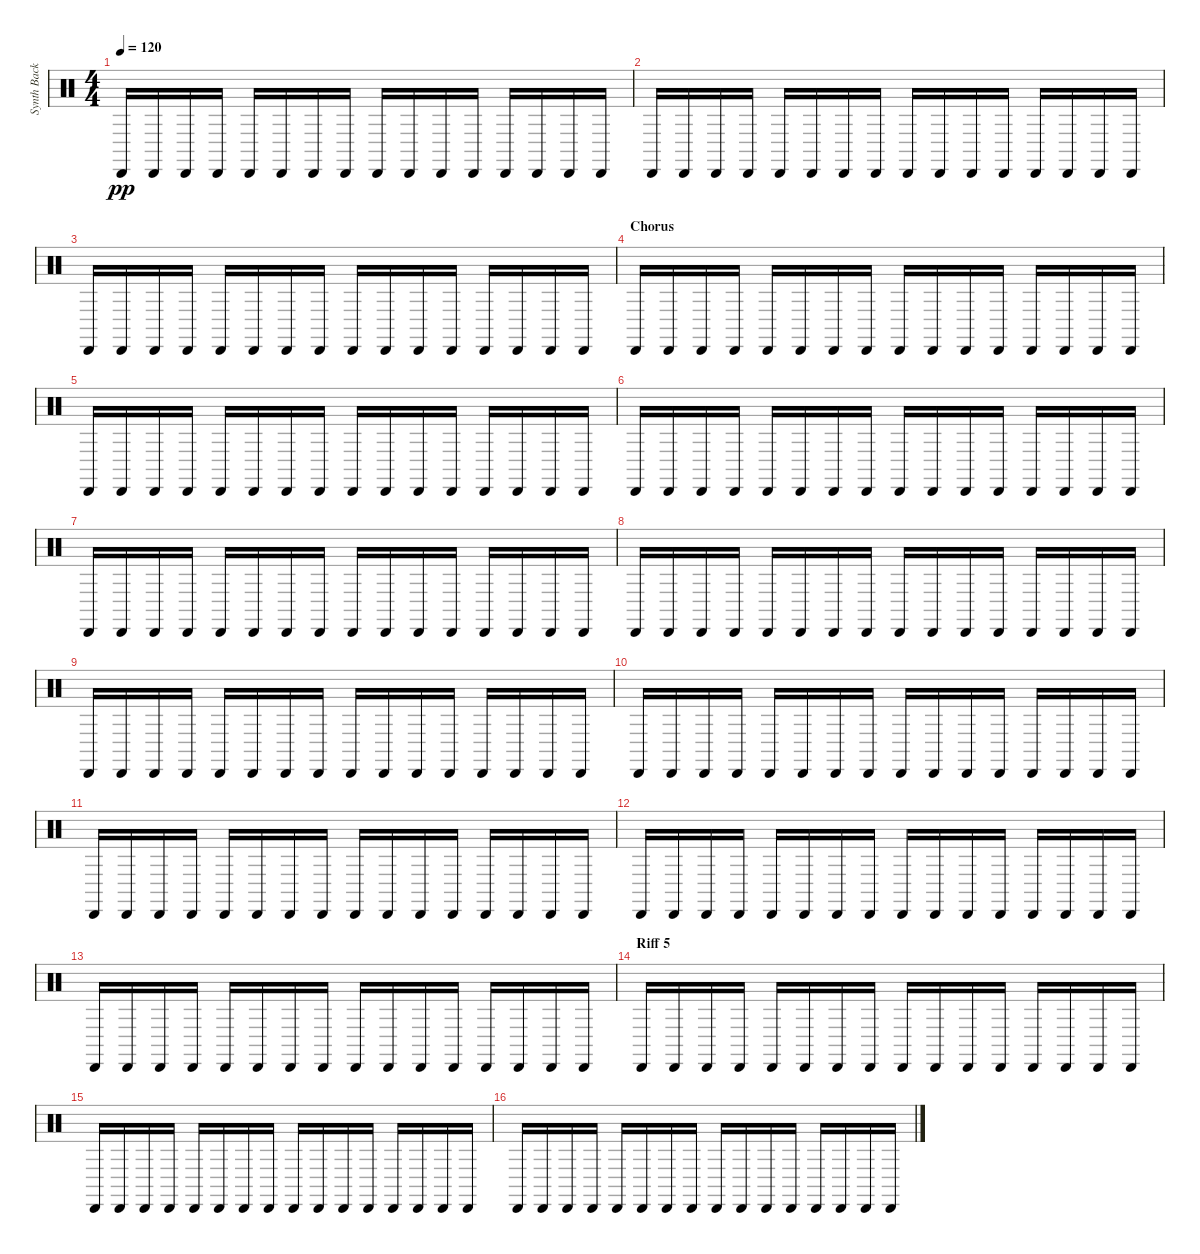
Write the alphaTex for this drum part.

\track ("Synth Background Rhythm" "Synth Back") {instrument percussion}
\staff {score}
\articulation defaults
\ts (4 4)
\tempo 120
\clef neutral
\ks c "Cabasa (hit)".16{dy pp} "Cabasa (hit)".16 "Cabasa (hit)".16 "Cabasa (hit)".16 "Cabasa (hit)".16 "Cabasa (hit)".16 "Cabasa (hit)".16 "Cabasa (hit)".16 "Cabasa (hit)".16 "Cabasa (hit)".16 "Cabasa (hit)".16 "Cabasa (hit)".16 "Cabasa (hit)".16 "Cabasa (hit)".16 "Cabasa (hit)".16 "Cabasa (hit)".16
|
"Cabasa (hit)".16 "Cabasa (hit)".16 "Cabasa (hit)".16 "Cabasa (hit)".16 "Cabasa (hit)".16 "Cabasa (hit)".16 "Cabasa (hit)".16 "Cabasa (hit)".16 "Cabasa (hit)".16 "Cabasa (hit)".16 "Cabasa (hit)".16 "Cabasa (hit)".16 "Cabasa (hit)".16 "Cabasa (hit)".16 "Cabasa (hit)".16 "Cabasa (hit)".16 |
"Cabasa (hit)".16 "Cabasa (hit)".16 "Cabasa (hit)".16 "Cabasa (hit)".16 "Cabasa (hit)".16 "Cabasa (hit)".16 "Cabasa (hit)".16 "Cabasa (hit)".16 "Cabasa (hit)".16 "Cabasa (hit)".16 "Cabasa (hit)".16 "Cabasa (hit)".16 "Cabasa (hit)".16 "Cabasa (hit)".16 "Cabasa (hit)".16 "Cabasa (hit)".16 |
\section ("" "Chorus")
"Cabasa (hit)".16 "Cabasa (hit)".16 "Cabasa (hit)".16 "Cabasa (hit)".16 "Cabasa (hit)".16 "Cabasa (hit)".16 "Cabasa (hit)".16 "Cabasa (hit)".16 "Cabasa (hit)".16 "Cabasa (hit)".16 "Cabasa (hit)".16 "Cabasa (hit)".16 "Cabasa (hit)".16 "Cabasa (hit)".16 "Cabasa (hit)".16 "Cabasa (hit)".16 |
"Cabasa (hit)".16 "Cabasa (hit)".16 "Cabasa (hit)".16 "Cabasa (hit)".16 "Cabasa (hit)".16 "Cabasa (hit)".16 "Cabasa (hit)".16 "Cabasa (hit)".16 "Cabasa (hit)".16 "Cabasa (hit)".16 "Cabasa (hit)".16 "Cabasa (hit)".16 "Cabasa (hit)".16 "Cabasa (hit)".16 "Cabasa (hit)".16 "Cabasa (hit)".16 |
"Cabasa (hit)".16 "Cabasa (hit)".16 "Cabasa (hit)".16 "Cabasa (hit)".16 "Cabasa (hit)".16 "Cabasa (hit)".16 "Cabasa (hit)".16 "Cabasa (hit)".16 "Cabasa (hit)".16 "Cabasa (hit)".16 "Cabasa (hit)".16 "Cabasa (hit)".16 "Cabasa (hit)".16 "Cabasa (hit)".16 "Cabasa (hit)".16 "Cabasa (hit)".16 |
"Cabasa (hit)".16 "Cabasa (hit)".16 "Cabasa (hit)".16 "Cabasa (hit)".16 "Cabasa (hit)".16 "Cabasa (hit)".16 "Cabasa (hit)".16 "Cabasa (hit)".16 "Cabasa (hit)".16 "Cabasa (hit)".16 "Cabasa (hit)".16 "Cabasa (hit)".16 "Cabasa (hit)".16 "Cabasa (hit)".16 "Cabasa (hit)".16 "Cabasa (hit)".16 |
"Cabasa (hit)".16 "Cabasa (hit)".16 "Cabasa (hit)".16 "Cabasa (hit)".16 "Cabasa (hit)".16 "Cabasa (hit)".16 "Cabasa (hit)".16 "Cabasa (hit)".16 "Cabasa (hit)".16 "Cabasa (hit)".16 "Cabasa (hit)".16 "Cabasa (hit)".16 "Cabasa (hit)".16 "Cabasa (hit)".16 "Cabasa (hit)".16 "Cabasa (hit)".16 |
"Cabasa (hit)".16 "Cabasa (hit)".16 "Cabasa (hit)".16 "Cabasa (hit)".16 "Cabasa (hit)".16 "Cabasa (hit)".16 "Cabasa (hit)".16 "Cabasa (hit)".16 "Cabasa (hit)".16 "Cabasa (hit)".16 "Cabasa (hit)".16 "Cabasa (hit)".16 "Cabasa (hit)".16 "Cabasa (hit)".16 "Cabasa (hit)".16 "Cabasa (hit)".16 |
"Cabasa (hit)".16 "Cabasa (hit)".16 "Cabasa (hit)".16 "Cabasa (hit)".16 "Cabasa (hit)".16 "Cabasa (hit)".16 "Cabasa (hit)".16 "Cabasa (hit)".16 "Cabasa (hit)".16 "Cabasa (hit)".16 "Cabasa (hit)".16 "Cabasa (hit)".16 "Cabasa (hit)".16 "Cabasa (hit)".16 "Cabasa (hit)".16 "Cabasa (hit)".16 |
"Cabasa (hit)".16 "Cabasa (hit)".16 "Cabasa (hit)".16 "Cabasa (hit)".16 "Cabasa (hit)".16 "Cabasa (hit)".16 "Cabasa (hit)".16 "Cabasa (hit)".16 "Cabasa (hit)".16 "Cabasa (hit)".16 "Cabasa (hit)".16 "Cabasa (hit)".16 "Cabasa (hit)".16 "Cabasa (hit)".16 "Cabasa (hit)".16 "Cabasa (hit)".16 |
"Cabasa (hit)".16 "Cabasa (hit)".16 "Cabasa (hit)".16 "Cabasa (hit)".16 "Cabasa (hit)".16 "Cabasa (hit)".16 "Cabasa (hit)".16 "Cabasa (hit)".16 "Cabasa (hit)".16 "Cabasa (hit)".16 "Cabasa (hit)".16 "Cabasa (hit)".16 "Cabasa (hit)".16 "Cabasa (hit)".16 "Cabasa (hit)".16 "Cabasa (hit)".16 |
"Cabasa (hit)".16 "Cabasa (hit)".16 "Cabasa (hit)".16 "Cabasa (hit)".16 "Cabasa (hit)".16 "Cabasa (hit)".16 "Cabasa (hit)".16 "Cabasa (hit)".16 "Cabasa (hit)".16 "Cabasa (hit)".16 "Cabasa (hit)".16 "Cabasa (hit)".16 "Cabasa (hit)".16 "Cabasa (hit)".16 "Cabasa (hit)".16 "Cabasa (hit)".16 |
\section ("" "Riff 5")
"Cabasa (hit)".16 "Cabasa (hit)".16 "Cabasa (hit)".16 "Cabasa (hit)".16 "Cabasa (hit)".16 "Cabasa (hit)".16 "Cabasa (hit)".16 "Cabasa (hit)".16 "Cabasa (hit)".16 "Cabasa (hit)".16 "Cabasa (hit)".16 "Cabasa (hit)".16 "Cabasa (hit)".16 "Cabasa (hit)".16 "Cabasa (hit)".16 "Cabasa (hit)".16 |
"Cabasa (hit)".16 "Cabasa (hit)".16 "Cabasa (hit)".16 "Cabasa (hit)".16 "Cabasa (hit)".16 "Cabasa (hit)".16 "Cabasa (hit)".16 "Cabasa (hit)".16 "Cabasa (hit)".16 "Cabasa (hit)".16 "Cabasa (hit)".16 "Cabasa (hit)".16 "Cabasa (hit)".16 "Cabasa (hit)".16 "Cabasa (hit)".16 "Cabasa (hit)".16 |
"Cabasa (hit)".16 "Cabasa (hit)".16 "Cabasa (hit)".16 "Cabasa (hit)".16 "Cabasa (hit)".16 "Cabasa (hit)".16 "Cabasa (hit)".16 "Cabasa (hit)".16 "Cabasa (hit)".16 "Cabasa (hit)".16 "Cabasa (hit)".16 "Cabasa (hit)".16 "Cabasa (hit)".16 "Cabasa (hit)".16 "Cabasa (hit)".16 "Cabasa (hit)".16
